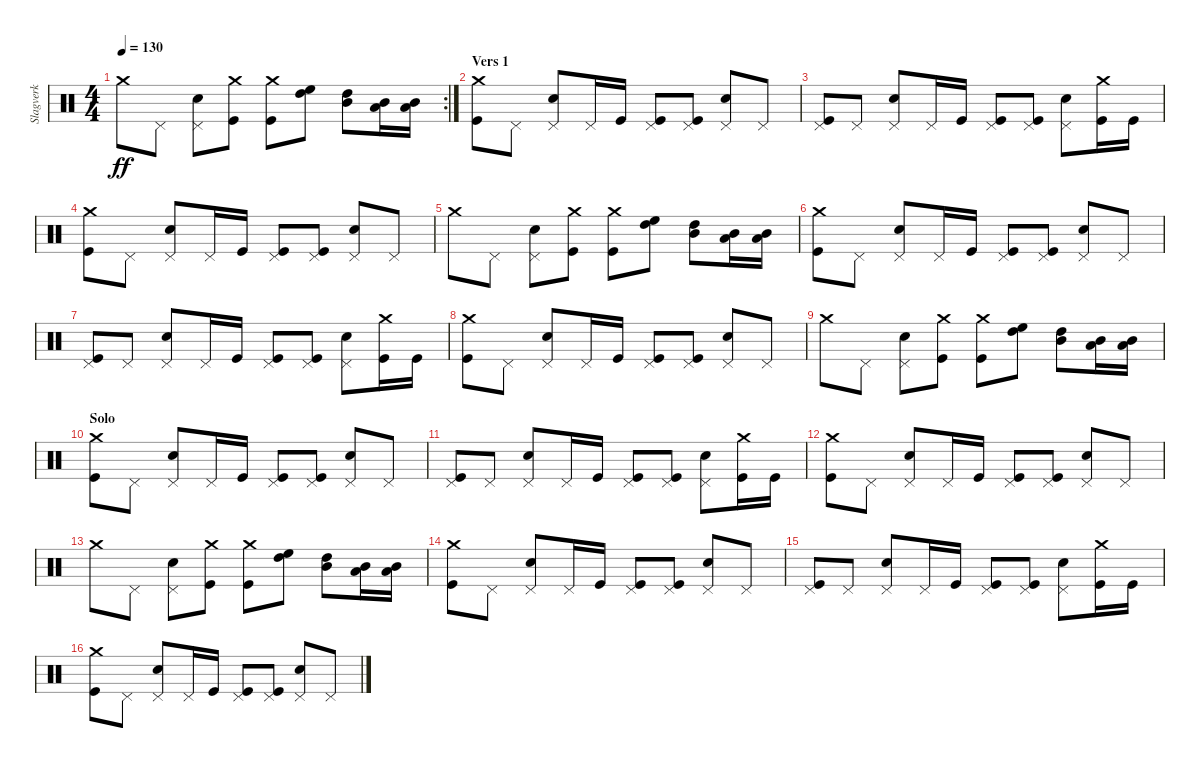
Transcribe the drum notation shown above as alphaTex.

\track ("Slagverk" "Slagverk") {instrument percussion}
\staff {score}
\articulation defaults
\rc 2
\ts (4 4)
\tempo 130
\clef neutral
\ks c "Crash medium (hit)".8{dy ff} "Pedal Hi-Hat (hit)".8
("Electric Snare (hit)" "Pedal Hi-Hat (hit)").8 ("Kick (hit)" "Crash medium (hit)").8 ("Kick (hit)" "Crash medium (hit)").8 ("High Tom (hit)" "High Floor Tom (hit)").8 ("Mid Tom (hit)" "High Tom (hit)").8 ("Low Tom (hit)" "Mid Tom (hit)").16 ("Low Tom (hit)" "Mid Tom (hit)").16 |
\section ("" "Vers 1")
("Kick (hit)" "Crash medium (hit)").8 "Pedal Hi-Hat (hit)".8 ("Electric Snare (hit)" "Pedal Hi-Hat (hit)").8 "Pedal Hi-Hat (hit)".16 "Kick (hit)".16 ("Kick (hit)" "Pedal Hi-Hat (hit)").8 ("Kick (hit)" "Pedal Hi-Hat (hit)").8 ("Electric Snare (hit)" "Pedal Hi-Hat (hit)").8 "Pedal Hi-Hat (hit)".8 |
("Kick (hit)" "Pedal Hi-Hat (hit)").8 "Pedal Hi-Hat (hit)".8 ("Electric Snare (hit)" "Pedal Hi-Hat (hit)").8 "Pedal Hi-Hat (hit)".16 "Kick (hit)".16 ("Kick (hit)" "Pedal Hi-Hat (hit)").8 ("Kick (hit)" "Pedal Hi-Hat (hit)").8 ("Electric Snare (hit)" "Pedal Hi-Hat (hit)").8 ("Kick (hit)" "Crash medium (hit)").16 "Kick (hit)".16 |
("Kick (hit)" "Crash medium (hit)").8 "Pedal Hi-Hat (hit)".8 ("Electric Snare (hit)" "Pedal Hi-Hat (hit)").8 "Pedal Hi-Hat (hit)".16 "Kick (hit)".16 ("Kick (hit)" "Pedal Hi-Hat (hit)").8 ("Kick (hit)" "Pedal Hi-Hat (hit)").8 ("Electric Snare (hit)" "Pedal Hi-Hat (hit)").8 "Pedal Hi-Hat (hit)".8 |
"Crash medium (hit)".8 "Pedal Hi-Hat (hit)".8 ("Electric Snare (hit)" "Pedal Hi-Hat (hit)").8 ("Kick (hit)" "Crash medium (hit)").8 ("Kick (hit)" "Crash medium (hit)").8 ("High Tom (hit)" "High Floor Tom (hit)").8 ("Mid Tom (hit)" "High Tom (hit)").8 ("Low Tom (hit)" "Mid Tom (hit)").16 ("Low Tom (hit)" "Mid Tom (hit)").16 |
("Kick (hit)" "Crash medium (hit)").8 "Pedal Hi-Hat (hit)".8 ("Electric Snare (hit)" "Pedal Hi-Hat (hit)").8 "Pedal Hi-Hat (hit)".16 "Kick (hit)".16 ("Kick (hit)" "Pedal Hi-Hat (hit)").8 ("Kick (hit)" "Pedal Hi-Hat (hit)").8 ("Electric Snare (hit)" "Pedal Hi-Hat (hit)").8 "Pedal Hi-Hat (hit)".8 |
("Kick (hit)" "Pedal Hi-Hat (hit)").8 "Pedal Hi-Hat (hit)".8 ("Electric Snare (hit)" "Pedal Hi-Hat (hit)").8 "Pedal Hi-Hat (hit)".16 "Kick (hit)".16 ("Kick (hit)" "Pedal Hi-Hat (hit)").8 ("Kick (hit)" "Pedal Hi-Hat (hit)").8 ("Electric Snare (hit)" "Pedal Hi-Hat (hit)").8 ("Kick (hit)" "Crash medium (hit)").16 "Kick (hit)".16 |
("Kick (hit)" "Crash medium (hit)").8 "Pedal Hi-Hat (hit)".8 ("Electric Snare (hit)" "Pedal Hi-Hat (hit)").8 "Pedal Hi-Hat (hit)".16 "Kick (hit)".16 ("Kick (hit)" "Pedal Hi-Hat (hit)").8 ("Kick (hit)" "Pedal Hi-Hat (hit)").8 ("Electric Snare (hit)" "Pedal Hi-Hat (hit)").8 "Pedal Hi-Hat (hit)".8 |
"Crash medium (hit)".8 "Pedal Hi-Hat (hit)".8 ("Electric Snare (hit)" "Pedal Hi-Hat (hit)").8 ("Kick (hit)" "Crash medium (hit)").8 ("Kick (hit)" "Crash medium (hit)").8 ("High Tom (hit)" "High Floor Tom (hit)").8 ("Mid Tom (hit)" "High Tom (hit)").8 ("Low Tom (hit)" "Mid Tom (hit)").16 ("Low Tom (hit)" "Mid Tom (hit)").16 |
\section ("" "Solo")
("Kick (hit)" "Crash medium (hit)").8 "Pedal Hi-Hat (hit)".8 ("Electric Snare (hit)" "Pedal Hi-Hat (hit)").8 "Pedal Hi-Hat (hit)".16 "Kick (hit)".16 ("Kick (hit)" "Pedal Hi-Hat (hit)").8 ("Kick (hit)" "Pedal Hi-Hat (hit)").8 ("Electric Snare (hit)" "Pedal Hi-Hat (hit)").8 "Pedal Hi-Hat (hit)".8 |
("Kick (hit)" "Pedal Hi-Hat (hit)").8 "Pedal Hi-Hat (hit)".8 ("Electric Snare (hit)" "Pedal Hi-Hat (hit)").8 "Pedal Hi-Hat (hit)".16 "Kick (hit)".16 ("Kick (hit)" "Pedal Hi-Hat (hit)").8 ("Kick (hit)" "Pedal Hi-Hat (hit)").8 ("Electric Snare (hit)" "Pedal Hi-Hat (hit)").8 ("Kick (hit)" "Crash medium (hit)").16 "Kick (hit)".16 |
("Kick (hit)" "Crash medium (hit)").8 "Pedal Hi-Hat (hit)".8 ("Electric Snare (hit)" "Pedal Hi-Hat (hit)").8 "Pedal Hi-Hat (hit)".16 "Kick (hit)".16 ("Kick (hit)" "Pedal Hi-Hat (hit)").8 ("Kick (hit)" "Pedal Hi-Hat (hit)").8 ("Electric Snare (hit)" "Pedal Hi-Hat (hit)").8 "Pedal Hi-Hat (hit)".8 |
"Crash medium (hit)".8 "Pedal Hi-Hat (hit)".8 ("Electric Snare (hit)" "Pedal Hi-Hat (hit)").8 ("Kick (hit)" "Crash medium (hit)").8 ("Kick (hit)" "Crash medium (hit)").8 ("High Tom (hit)" "High Floor Tom (hit)").8 ("Mid Tom (hit)" "High Tom (hit)").8 ("Low Tom (hit)" "Mid Tom (hit)").16 ("Low Tom (hit)" "Mid Tom (hit)").16 |
("Kick (hit)" "Crash medium (hit)").8 "Pedal Hi-Hat (hit)".8 ("Electric Snare (hit)" "Pedal Hi-Hat (hit)").8 "Pedal Hi-Hat (hit)".16 "Kick (hit)".16 ("Kick (hit)" "Pedal Hi-Hat (hit)").8 ("Kick (hit)" "Pedal Hi-Hat (hit)").8 ("Electric Snare (hit)" "Pedal Hi-Hat (hit)").8 "Pedal Hi-Hat (hit)".8 |
("Kick (hit)" "Pedal Hi-Hat (hit)").8 "Pedal Hi-Hat (hit)".8 ("Electric Snare (hit)" "Pedal Hi-Hat (hit)").8 "Pedal Hi-Hat (hit)".16 "Kick (hit)".16 ("Kick (hit)" "Pedal Hi-Hat (hit)").8 ("Kick (hit)" "Pedal Hi-Hat (hit)").8 ("Electric Snare (hit)" "Pedal Hi-Hat (hit)").8 ("Kick (hit)" "Crash medium (hit)").16 "Kick (hit)".16 |
("Kick (hit)" "Crash medium (hit)").8 "Pedal Hi-Hat (hit)".8 ("Electric Snare (hit)" "Pedal Hi-Hat (hit)").8 "Pedal Hi-Hat (hit)".16 "Kick (hit)".16 ("Kick (hit)" "Pedal Hi-Hat (hit)").8 ("Kick (hit)" "Pedal Hi-Hat (hit)").8 ("Electric Snare (hit)" "Pedal Hi-Hat (hit)").8 "Pedal Hi-Hat (hit)".8
